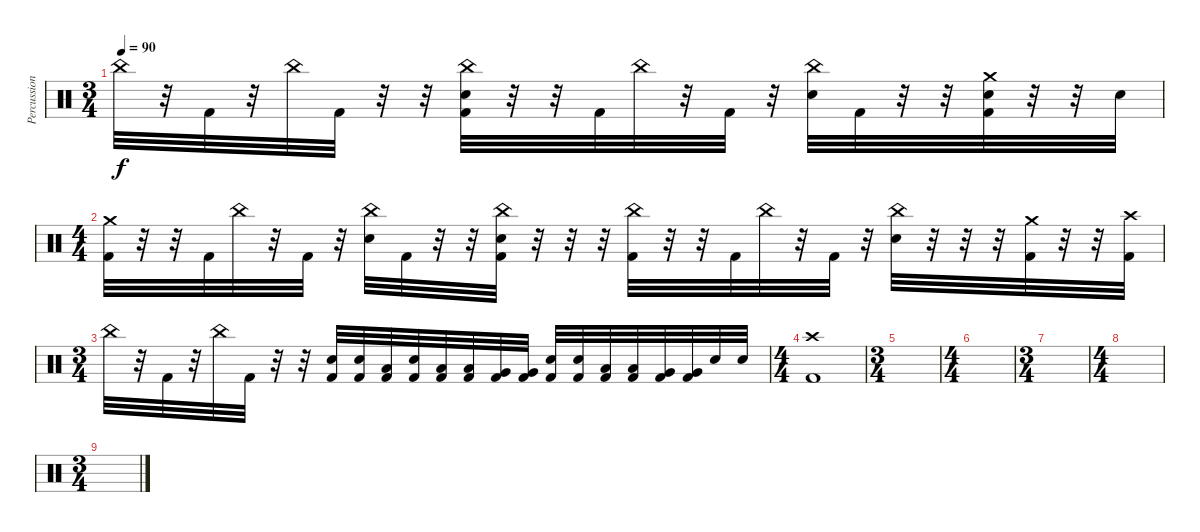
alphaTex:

\track ("Percussion" "Percussion") {instrument percussion}
\staff {score}
\articulation defaults
\ts (3 4)
\tempo 90
\clef neutral
\ks c "China (hit)".32{dy f}
r.32 "Kick (hit) 2".32 r.32 "China (hit)".32 "Kick (hit) 2".32 r.32 r.32 ("China (hit)" "Electric Snare (hit)" "Kick (hit) 2").32 r.32 r.32 "Kick (hit) 2".32 "China (hit)".32 r.32 "Kick (hit) 2".32 r.32 ("China (hit)" "Electric Snare (hit)").32 "Kick (hit) 2".32 r.32 r.32 ("Crash medium (hit)" "Electric Snare (hit)" "Kick (hit) 2").32 r.32 r.32 "Electric Snare (hit)".32 |
\ts (4 4)
("Crash medium (hit)" "Kick (hit) 2").32 r.32 r.32 "Kick (hit) 2".32 "China (hit)".32 r.32 "Kick (hit) 2".32 r.32 ("China (hit)" "Electric Snare (hit)").32 "Kick (hit) 2".32 r.32 r.32 ("China (hit)" "Electric Snare (hit)" "Kick (hit) 2").32 r.32 r.32 r.32 ("China (hit)" "Kick (hit) 2").32 r.32 r.32 "Kick (hit) 2".32 "China (hit)".32 r.32 "Kick (hit) 2".32 r.32 ("China (hit)" "Electric Snare (hit)").32 r.32 r.32 r.32 ("Crash medium (hit)" "Kick (hit) 2").32 r.32 r.32 ("Crash high (hit)" "Kick (hit) 2").32 |
\ts (3 4)
"China (hit)".32 r.32 "Kick (hit) 2".32 r.32 "China (hit)".32 "Kick (hit) 2".32 r.32 r.32 ("Electric Snare (hit)" "Kick (hit) 2").32 ("Electric Snare (hit)" "Kick (hit) 2").32 ("Low Tom (hit)" "Kick (hit) 2").32 ("Electric Snare (hit)" "Kick (hit) 2").32 ("Low Tom (hit)" "Kick (hit) 2").32 ("Low Tom (hit)" "Kick (hit) 2").32 ("Very Low Tom (hit)" "Kick (hit) 2").32 ("Very Low Tom (hit)" "Kick (hit) 2").32 ("Electric Snare (hit)" "Kick (hit) 2").32 ("Electric Snare (hit)" "Kick (hit) 2").32 ("Low Tom (hit)" "Kick (hit) 2").32 ("Low Tom (hit)" "Kick (hit) 2").32 ("Very Low Tom (hit)" "Kick (hit) 2").32 ("Very Low Tom (hit)" "Kick (hit) 2").32 "Electric Snare (hit)".32 "Electric Snare (hit)".32 |
\ts (4 4)
("Crash high (hit)" "Kick (hit) 2").1 |
\ts (3 4)
|
\ts (4 4)
|
\ts (3 4)
|
\ts (4 4)
|
\ts (3 4)
